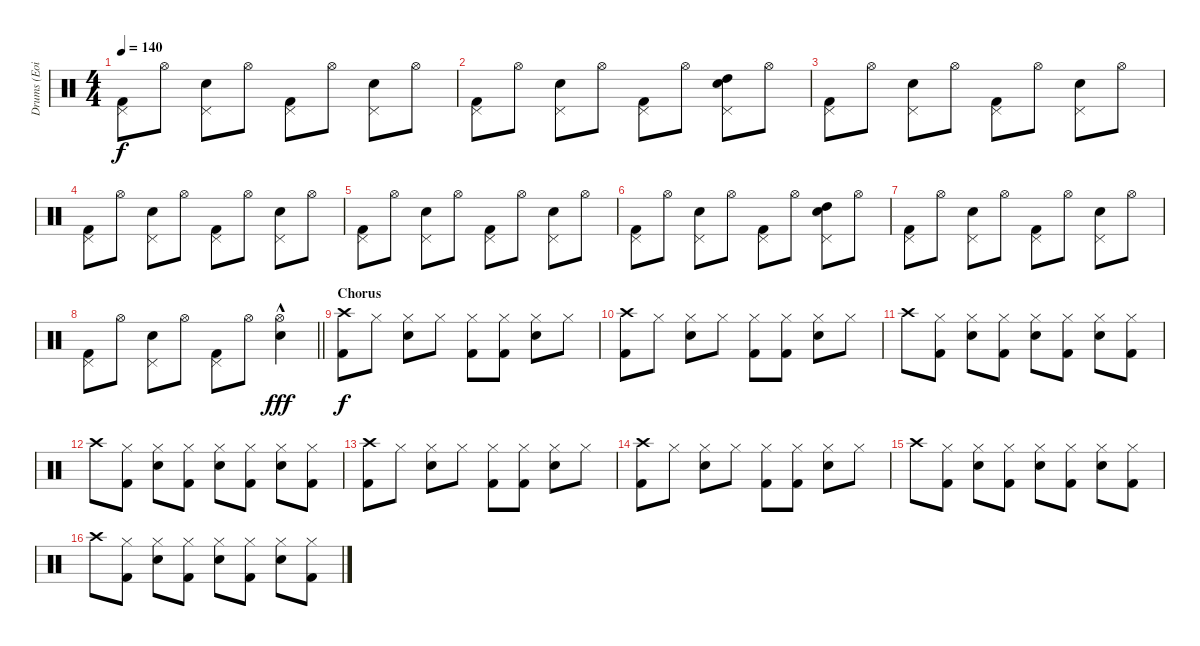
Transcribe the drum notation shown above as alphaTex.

\track ("Drums (Eoin)" "Drums (Eoi") {instrument percussion}
\staff {score}
\articulation defaults
\ts (4 4)
\tempo 140
\clef neutral
\ks c
("Pedal Hi-Hat (hit)" "Kick (hit) 2").8{dy f} "Hi-Hat (open)".8 ("Pedal Hi-Hat (hit)" "Electric Snare (hit)").8 "Hi-Hat (open)".8 ("Pedal Hi-Hat (hit)" "Kick (hit) 2").8 "Hi-Hat (open)".8 ("Pedal Hi-Hat (hit)" "Electric Snare (hit)").8 "Hi-Hat (open)".8 |
("Pedal Hi-Hat (hit)" "Kick (hit) 2").8 "Hi-Hat (open)".8 ("Pedal Hi-Hat (hit)" "Electric Snare (hit)").8 "Hi-Hat (open)".8 ("Pedal Hi-Hat (hit)" "Kick (hit) 2").8 "Hi-Hat (open)".8 ("Pedal Hi-Hat (hit)" "Electric Snare (hit)" "High Tom (hit)").8 "Hi-Hat (open)".8 |
("Pedal Hi-Hat (hit)" "Kick (hit) 2").8 "Hi-Hat (open)".8 ("Pedal Hi-Hat (hit)" "Electric Snare (hit)").8 "Hi-Hat (open)".8 ("Pedal Hi-Hat (hit)" "Kick (hit) 2").8 "Hi-Hat (open)".8 ("Pedal Hi-Hat (hit)" "Electric Snare (hit)").8 "Hi-Hat (open)".8 |
("Pedal Hi-Hat (hit)" "Kick (hit) 2").8 "Hi-Hat (open)".8 ("Pedal Hi-Hat (hit)" "Electric Snare (hit)").8 "Hi-Hat (open)".8 ("Pedal Hi-Hat (hit)" "Kick (hit) 2").8 "Hi-Hat (open)".8 ("Pedal Hi-Hat (hit)" "Electric Snare (hit)").8 "Hi-Hat (open)".8 |
("Pedal Hi-Hat (hit)" "Kick (hit) 2").8 "Hi-Hat (open)".8 ("Pedal Hi-Hat (hit)" "Electric Snare (hit)").8 "Hi-Hat (open)".8 ("Pedal Hi-Hat (hit)" "Kick (hit) 2").8 "Hi-Hat (open)".8 ("Pedal Hi-Hat (hit)" "Electric Snare (hit)").8 "Hi-Hat (open)".8 |
("Pedal Hi-Hat (hit)" "Kick (hit) 2").8 "Hi-Hat (open)".8 ("Pedal Hi-Hat (hit)" "Electric Snare (hit)").8 "Hi-Hat (open)".8 ("Pedal Hi-Hat (hit)" "Kick (hit) 2").8 "Hi-Hat (open)".8 ("Pedal Hi-Hat (hit)" "Electric Snare (hit)" "High Tom (hit)").8 "Hi-Hat (open)".8 |
("Pedal Hi-Hat (hit)" "Kick (hit) 2").8 "Hi-Hat (open)".8 ("Pedal Hi-Hat (hit)" "Electric Snare (hit)").8 "Hi-Hat (open)".8 ("Pedal Hi-Hat (hit)" "Kick (hit) 2").8 "Hi-Hat (open)".8 ("Pedal Hi-Hat (hit)" "Electric Snare (hit)").8 "Hi-Hat (open)".8 |
\barLineRight lightlight
("Pedal Hi-Hat (hit)" "Kick (hit) 2").8 "Hi-Hat (open)".8 ("Pedal Hi-Hat (hit)" "Electric Snare (hit)").8 "Hi-Hat (open)".8 ("Pedal Hi-Hat (hit)" "Kick (hit) 2").8 "Hi-Hat (open)".8 ("Hi-Hat (open)" "Electric Snare (hit)"{hac}).4{dy fff} |
\section ("" "Chorus")
("Crash high (hit)" "Kick (hit) 2").8{dy f} "Hi-Hat (closed)".8 ("Hi-Hat (closed)" "Electric Snare (hit)").8 "Hi-Hat (closed)".8 ("Hi-Hat (closed)" "Kick (hit) 2").8 ("Hi-Hat (closed)" "Kick (hit) 2").8 ("Hi-Hat (closed)" "Electric Snare (hit)").8 "Hi-Hat (closed)".8 |
("Crash high (hit)" "Kick (hit) 2").8 "Hi-Hat (closed)".8 ("Hi-Hat (closed)" "Electric Snare (hit)").8 "Hi-Hat (closed)".8 ("Hi-Hat (closed)" "Kick (hit) 2").8 ("Hi-Hat (closed)" "Kick (hit) 2").8 ("Hi-Hat (closed)" "Electric Snare (hit)").8 "Hi-Hat (closed)".8 |
"Crash high (hit)".8 ("Hi-Hat (closed)" "Kick (hit) 2").8 ("Hi-Hat (closed)" "Electric Snare (hit)").8 ("Hi-Hat (closed)" "Kick (hit) 2").8 ("Hi-Hat (closed)" "Electric Snare (hit)").8 ("Hi-Hat (closed)" "Kick (hit) 2").8 ("Hi-Hat (closed)" "Electric Snare (hit)").8 ("Hi-Hat (closed)" "Kick (hit) 2").8 |
"Crash high (hit)".8 ("Hi-Hat (closed)" "Kick (hit) 2").8 ("Hi-Hat (closed)" "Electric Snare (hit)").8 ("Hi-Hat (closed)" "Kick (hit) 2").8 ("Hi-Hat (closed)" "Electric Snare (hit)").8 ("Hi-Hat (closed)" "Kick (hit) 2").8 ("Hi-Hat (closed)" "Electric Snare (hit)").8 ("Hi-Hat (closed)" "Kick (hit) 2").8 |
("Crash high (hit)" "Kick (hit) 2").8 "Hi-Hat (closed)".8 ("Hi-Hat (closed)" "Electric Snare (hit)").8 "Hi-Hat (closed)".8 ("Hi-Hat (closed)" "Kick (hit) 2").8 ("Hi-Hat (closed)" "Kick (hit) 2").8 ("Hi-Hat (closed)" "Electric Snare (hit)").8 "Hi-Hat (closed)".8 |
("Crash high (hit)" "Kick (hit) 2").8 "Hi-Hat (closed)".8 ("Hi-Hat (closed)" "Electric Snare (hit)").8 "Hi-Hat (closed)".8 ("Hi-Hat (closed)" "Kick (hit) 2").8 ("Hi-Hat (closed)" "Kick (hit) 2").8 ("Hi-Hat (closed)" "Electric Snare (hit)").8 "Hi-Hat (closed)".8 |
"Crash high (hit)".8 ("Hi-Hat (closed)" "Kick (hit) 2").8 ("Hi-Hat (closed)" "Electric Snare (hit)").8 ("Hi-Hat (closed)" "Kick (hit) 2").8 ("Hi-Hat (closed)" "Electric Snare (hit)").8 ("Hi-Hat (closed)" "Kick (hit) 2").8 ("Hi-Hat (closed)" "Electric Snare (hit)").8 ("Hi-Hat (closed)" "Kick (hit) 2").8 |
"Crash high (hit)".8 ("Hi-Hat (closed)" "Kick (hit) 2").8 ("Hi-Hat (closed)" "Electric Snare (hit)").8 ("Hi-Hat (closed)" "Kick (hit) 2").8 ("Hi-Hat (closed)" "Electric Snare (hit)").8 ("Hi-Hat (closed)" "Kick (hit) 2").8 ("Hi-Hat (closed)" "Electric Snare (hit)").8 ("Hi-Hat (closed)" "Kick (hit) 2").8
